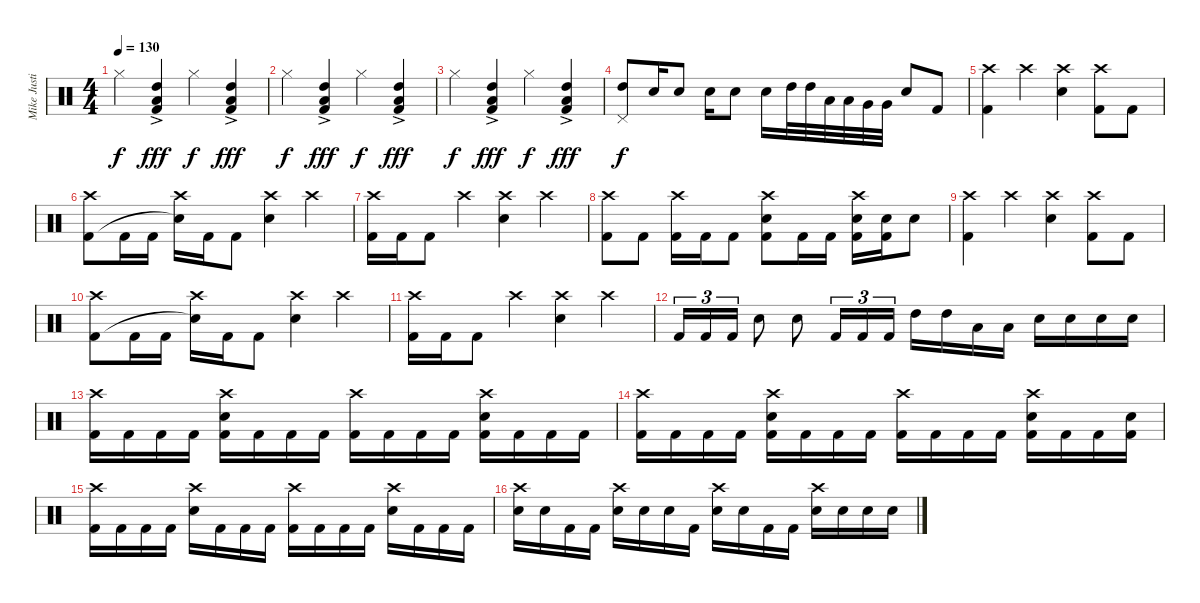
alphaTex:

\track ("Mike Justian" "Mike Justi") {instrument percussion}
\staff {score}
\articulation defaults
\ts (4 4)
\tempo 130
\clef neutral
\ks c "Hi-Hat (closed)".4{dy f}
("High Tom (hit)"{ac} "Low Floor Tom (hit)" "Kick (hit) 2").4{dy fff} "Hi-Hat (closed)".4{dy f} ("High Tom (hit)"{ac} "Low Floor Tom (hit)" "Kick (hit) 2").4{dy fff} |
"Hi-Hat (closed)".4{dy f} ("High Tom (hit)"{ac} "Low Floor Tom (hit)" "Kick (hit) 2").4{dy fff} "Hi-Hat (closed)".4{dy f} ("High Tom (hit)"{ac} "Low Floor Tom (hit)" "Kick (hit) 2").4{dy fff} |
"Hi-Hat (closed)".4{dy f} ("High Tom (hit)"{ac} "Low Floor Tom (hit)" "Kick (hit) 2").4{dy fff} "Hi-Hat (closed)".4{dy f} ("High Tom (hit)"{ac} "Low Floor Tom (hit)" "Kick (hit) 2").4{dy fff} |
("Pedal Hi-Hat (hit)" "High Tom (hit)").8{dy f} "Electric Snare (hit)".16 "Electric Snare (hit)".8 "Electric Snare (hit)".16 "Electric Snare (hit)".8 "Electric Snare (hit)".16 "High Tom (hit)".32 "High Tom (hit)".32 "Low Tom (hit)".32 "Low Tom (hit)".32 "Very Low Tom (hit)".32 "Very Low Tom (hit)".32 "Electric Snare (hit)".8 "Kick (hit) 2".8 |
("Crash high (hit)" "Kick (hit) 2").4 "Crash high (hit)".4 ("Crash high (hit)" "Electric Snare (hit)").4 ("Crash high (hit)" "Kick (hit) 2").8 "Kick (hit) 2".8 |
("Crash high (hit)" "Kick (hit) 2").8 "Kick (hit) 2".16 "Kick (hit) 2".16 ("Crash high (hit)" "Snare (hit)"{t}).16 "Kick (hit) 2".16 "Kick (hit) 2".8 ("Crash high (hit)" "Electric Snare (hit)").4 "Crash high (hit)".4 |
("Crash high (hit)" "Kick (hit) 2").16 "Kick (hit) 2".16 "Kick (hit) 2".8 "Crash high (hit)".4 ("Crash high (hit)" "Electric Snare (hit)").4 "Crash high (hit)".4 |
("Crash high (hit)" "Kick (hit) 2").8 "Kick (hit) 2".8 ("Crash high (hit)" "Kick (hit) 2").16 "Kick (hit) 2".16 "Kick (hit) 2".8 ("Crash high (hit)" "Electric Snare (hit)" "Kick (hit) 2").8 "Kick (hit) 2".16 "Kick (hit) 2".16 ("Crash high (hit)" "Electric Snare (hit)" "Kick (hit) 2").16 ("Electric Snare (hit)" "Kick (hit) 2").16 "Electric Snare (hit)".8 |
("Crash high (hit)" "Kick (hit) 2").4 "Crash high (hit)".4 ("Crash high (hit)" "Electric Snare (hit)").4 ("Crash high (hit)" "Kick (hit) 2").8 "Kick (hit) 2".8 |
("Crash high (hit)" "Kick (hit) 2").8 "Kick (hit) 2".16 "Kick (hit) 2".16 ("Crash high (hit)" "Snare (hit)"{t}).16 "Kick (hit) 2".16 "Kick (hit) 2".8 ("Crash high (hit)" "Electric Snare (hit)").4 "Crash high (hit)".4 |
("Crash high (hit)" "Kick (hit) 2").16 "Kick (hit) 2".16 "Kick (hit) 2".8 "Crash high (hit)".4 ("Crash high (hit)" "Electric Snare (hit)").4 "Crash high (hit)".4 |
"Kick (hit) 2".16{tu (3 2)} "Kick (hit) 2".16{tu (3 2)} "Kick (hit) 2".16{tu (3 2)} "Electric Snare (hit)".8 "Electric Snare (hit)".8 "Kick (hit) 2".16{tu (3 2)} "Kick (hit) 2".16{tu (3 2)} "Kick (hit) 2".16{tu (3 2)} "High Tom (hit)".16 "High Tom (hit)".16 "Low Tom (hit)".16 "Low Tom (hit)".16 "Electric Snare (hit)".16 "Electric Snare (hit)".16 "Electric Snare (hit)".16 "Electric Snare (hit)".16 |
("Crash high (hit)" "Kick (hit) 2").16 "Kick (hit) 2".16 "Kick (hit) 2".16 "Kick (hit) 2".16 ("Crash high (hit)" "Electric Snare (hit)" "Kick (hit) 2").16 "Kick (hit) 2".16 "Kick (hit) 2".16 "Kick (hit) 2".16 ("Crash high (hit)" "Kick (hit) 2").16 "Kick (hit) 2".16 "Kick (hit) 2".16 "Kick (hit) 2".16 ("Crash high (hit)" "Electric Snare (hit)" "Kick (hit) 2").16 "Kick (hit) 2".16 "Kick (hit) 2".16 "Kick (hit) 2".16 |
("Crash high (hit)" "Kick (hit) 2").16 "Kick (hit) 2".16 "Kick (hit) 2".16 "Kick (hit) 2".16 ("Crash high (hit)" "Electric Snare (hit)" "Kick (hit) 2").16 "Kick (hit) 2".16 "Kick (hit) 2".16 "Kick (hit) 2".16 ("Crash high (hit)" "Kick (hit) 2").16 "Kick (hit) 2".16 "Kick (hit) 2".16 "Kick (hit) 2".16 ("Crash high (hit)" "Electric Snare (hit)" "Kick (hit) 2").16 "Kick (hit) 2".16 "Kick (hit) 2".16 ("Electric Snare (hit)" "Kick (hit) 2").16 |
("Crash high (hit)" "Kick (hit) 2").16 "Kick (hit) 2".16 "Kick (hit) 2".16 "Kick (hit) 2".16 ("Crash high (hit)" "Electric Snare (hit)").16 "Kick (hit) 2".16 "Kick (hit) 2".16 "Kick (hit) 2".16 ("Crash high (hit)" "Kick (hit) 2").16 "Kick (hit) 2".16 "Kick (hit) 2".16 "Kick (hit) 2".16 ("Crash high (hit)" "Electric Snare (hit)").16 "Kick (hit) 2".16 "Kick (hit) 2".16 "Kick (hit) 2".16 |
("Crash high (hit)" "Electric Snare (hit)").16 "Electric Snare (hit)".16 "Kick (hit) 2".16 "Kick (hit) 2".16 ("Crash high (hit)" "Electric Snare (hit)").16 "Electric Snare (hit)".16 "Electric Snare (hit)".16 "Kick (hit) 2".16 ("Crash high (hit)" "Electric Snare (hit)").16 "Electric Snare (hit)".16 "Kick (hit) 2".16 "Kick (hit) 2".16 ("Crash high (hit)" "Electric Snare (hit)").16 "Electric Snare (hit)".16 "Electric Snare (hit)".16 "Electric Snare (hit)".16
